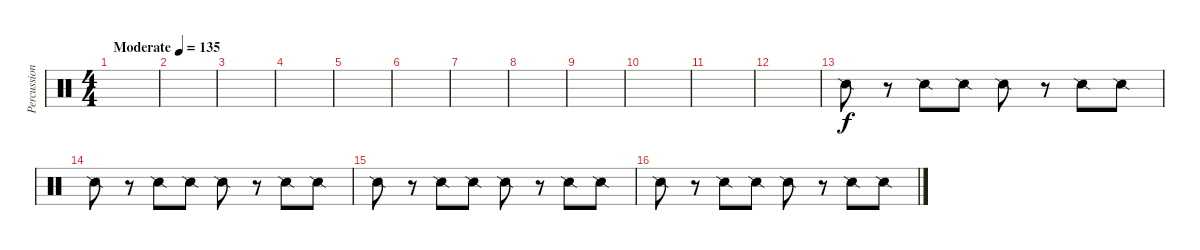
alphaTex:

\track ("Percussion" "Percussion") {instrument percussion}
\staff {score}
\articulation defaults
\ts (4 4)
\tempo (135 "Moderate")
\clef neutral
\ks c
|
|
|
|
|
|
|
|
|
|
|
|
"Snare (side stick) 2".8 r.8 "Snare (side stick) 2".8 "Snare (side stick) 2".8 "Snare (side stick) 2".8 r.8 "Snare (side stick) 2".8 "Snare (side stick) 2".8 |
"Snare (side stick) 2".8 r.8 "Snare (side stick) 2".8 "Snare (side stick) 2".8 "Snare (side stick) 2".8 r.8 "Snare (side stick) 2".8 "Snare (side stick) 2".8 |
"Snare (side stick) 2".8 r.8 "Snare (side stick) 2".8 "Snare (side stick) 2".8 "Snare (side stick) 2".8 r.8 "Snare (side stick) 2".8 "Snare (side stick) 2".8 |
"Snare (side stick) 2".8 r.8 "Snare (side stick) 2".8 "Snare (side stick) 2".8 "Snare (side stick) 2".8 r.8 "Snare (side stick) 2".8 "Snare (side stick) 2".8
